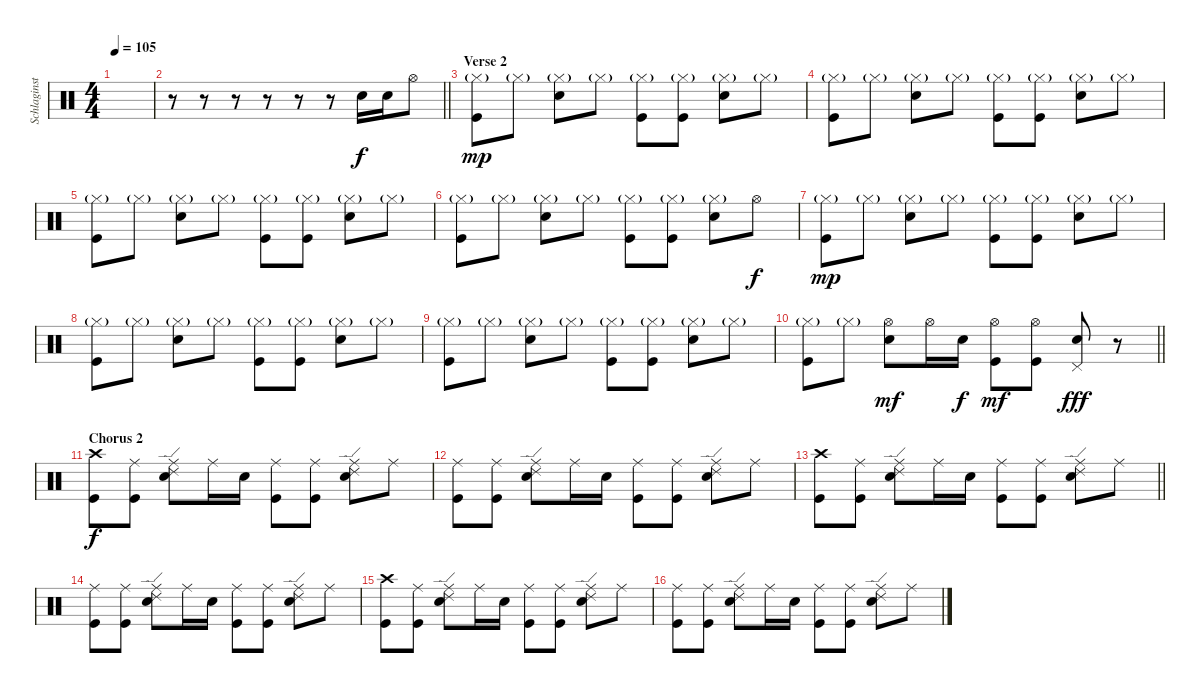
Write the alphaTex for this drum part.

\track ("Schlaginstrumente - Auswahl" "Schlaginst") {instrument percussion}
\staff {score}
\articulation defaults
\ts (4 4)
\tempo 105
\clef neutral
\ks c
|
\barLineRight lightlight
r.8 r.8 r.8 r.8 r.8 r.8 "Snare (hit) 2".16 "Snare (hit) 2".16 "Hi-Hat (open)".8 |
\section ("" "Verse 2")
("Hi-Hat (closed)"{g} "Kick (hit)").8{dy mp} "Hi-Hat (closed)"{g}.8 ("Hi-Hat (closed)"{g} "Snare (hit) 2").8 "Hi-Hat (closed)"{g}.8 ("Hi-Hat (closed)"{g} "Kick (hit)").8 ("Hi-Hat (closed)"{g} "Kick (hit)").8 ("Hi-Hat (closed)"{g} "Snare (hit) 2").8 "Hi-Hat (closed)"{g}.8 |
("Hi-Hat (closed)"{g} "Kick (hit)").8 "Hi-Hat (closed)"{g}.8 ("Hi-Hat (closed)"{g} "Snare (hit) 2").8 "Hi-Hat (closed)"{g}.8 ("Hi-Hat (closed)"{g} "Kick (hit)").8 ("Hi-Hat (closed)"{g} "Kick (hit)").8 ("Hi-Hat (closed)"{g} "Snare (hit) 2").8 "Hi-Hat (closed)"{g}.8 |
("Hi-Hat (closed)"{g} "Kick (hit)").8 "Hi-Hat (closed)"{g}.8 ("Hi-Hat (closed)"{g} "Snare (hit) 2").8 "Hi-Hat (closed)"{g}.8 ("Hi-Hat (closed)"{g} "Kick (hit)").8 ("Hi-Hat (closed)"{g} "Kick (hit)").8 ("Hi-Hat (closed)"{g} "Snare (hit) 2").8 "Hi-Hat (closed)"{g}.8 |
("Hi-Hat (closed)"{g} "Kick (hit)").8 "Hi-Hat (closed)"{g}.8 ("Hi-Hat (closed)"{g} "Snare (hit) 2").8 "Hi-Hat (closed)"{g}.8 ("Hi-Hat (closed)"{g} "Kick (hit)").8 ("Hi-Hat (closed)"{g} "Kick (hit)").8 ("Hi-Hat (closed)"{g} "Snare (hit) 2").8 "Hi-Hat (open)".8{dy f} |
("Hi-Hat (closed)"{g} "Kick (hit)").8{dy mp} "Hi-Hat (closed)"{g}.8 ("Hi-Hat (closed)"{g} "Snare (hit) 2").8 "Hi-Hat (closed)"{g}.8 ("Hi-Hat (closed)"{g} "Kick (hit)").8 ("Hi-Hat (closed)"{g} "Kick (hit)").8 ("Hi-Hat (closed)"{g} "Snare (hit) 2").8 "Hi-Hat (closed)"{g}.8 |
("Hi-Hat (closed)"{g} "Kick (hit)").8 "Hi-Hat (closed)"{g}.8 ("Hi-Hat (closed)"{g} "Snare (hit) 2").8 "Hi-Hat (closed)"{g}.8 ("Hi-Hat (closed)"{g} "Kick (hit)").8 ("Hi-Hat (closed)"{g} "Kick (hit)").8 ("Hi-Hat (closed)"{g} "Snare (hit) 2").8 "Hi-Hat (closed)"{g}.8 |
("Hi-Hat (closed)"{g} "Kick (hit)").8 "Hi-Hat (closed)"{g}.8 ("Hi-Hat (closed)"{g} "Snare (hit) 2").8 "Hi-Hat (closed)"{g}.8 ("Hi-Hat (closed)"{g} "Kick (hit)").8 ("Hi-Hat (closed)"{g} "Kick (hit)").8 ("Hi-Hat (closed)"{g} "Snare (hit) 2").8 "Hi-Hat (closed)"{g}.8 |
\barLineRight lightlight
("Hi-Hat (closed)"{g} "Kick (hit)").8 "Hi-Hat (closed)"{g}.8 ("Hi-Hat (open)" "Snare (hit) 2").8{dy mf} "Hi-Hat (open)".16 "Snare (hit) 2".16{dy f} ("Hi-Hat (open)" "Kick (hit)").8{dy mf} ("Hi-Hat (open)" "Kick (hit)").8 ("Pedal Hi-Hat (hit)" "Snare (hit) 2").8{dy fff} r.8 |
\section ("" "Chorus 2")
("Crash high (hit)" "Kick (hit)").8{dy f} ("Ride (middle)" "Kick (hit)").8 ("Ride (middle)" "Ride (edge) 2" "Snare (hit) 2").8 "Ride (middle)".16 "Snare (hit) 2".16 ("Ride (middle)" "Kick (hit)").8 ("Ride (middle)" "Kick (hit)").8 ("Ride (middle)" "Ride (edge) 2" "Snare (hit) 2").8 "Ride (middle)".8 |
("Ride (middle)" "Kick (hit)").8 ("Ride (middle)" "Kick (hit)").8 ("Ride (middle)" "Ride (edge) 2" "Snare (hit) 2").8 "Ride (middle)".16 "Snare (hit) 2".16 ("Ride (middle)" "Kick (hit)").8 ("Ride (middle)" "Kick (hit)").8 ("Ride (middle)" "Ride (edge) 2" "Snare (hit) 2").8 "Ride (middle)".8 |
\barLineRight lightlight
("Crash high (hit)" "Kick (hit)").8 ("Ride (middle)" "Kick (hit)").8 ("Ride (middle)" "Ride (edge) 2" "Snare (hit) 2").8 "Ride (middle)".16 "Snare (hit) 2".16 ("Ride (middle)" "Kick (hit)").8 ("Ride (middle)" "Kick (hit)").8 ("Ride (middle)" "Ride (edge) 2" "Snare (hit) 2").8 "Ride (middle)".8 |
("Ride (middle)" "Kick (hit)").8 ("Ride (middle)" "Kick (hit)").8 ("Ride (middle)" "Ride (edge) 2" "Snare (hit) 2").8 "Ride (middle)".16 "Snare (hit) 2".16 ("Ride (middle)" "Kick (hit)").8 ("Ride (middle)" "Kick (hit)").8 ("Ride (middle)" "Ride (edge) 2" "Snare (hit) 2").8 "Ride (middle)".8 |
("Crash high (hit)" "Kick (hit)").8 ("Ride (middle)" "Kick (hit)").8 ("Ride (middle)" "Ride (edge) 2" "Snare (hit) 2").8 "Ride (middle)".16 "Snare (hit) 2".16 ("Ride (middle)" "Kick (hit)").8 ("Ride (middle)" "Kick (hit)").8 ("Ride (middle)" "Ride (edge) 2" "Snare (hit) 2").8 "Ride (middle)".8 |
("Ride (middle)" "Kick (hit)").8 ("Ride (middle)" "Kick (hit)").8 ("Ride (middle)" "Ride (edge) 2" "Snare (hit) 2").8 "Ride (middle)".16 "Snare (hit) 2".16 ("Ride (middle)" "Kick (hit)").8 ("Ride (middle)" "Kick (hit)").8 ("Ride (middle)" "Ride (edge) 2" "Snare (hit) 2").8 "Ride (middle)".8
